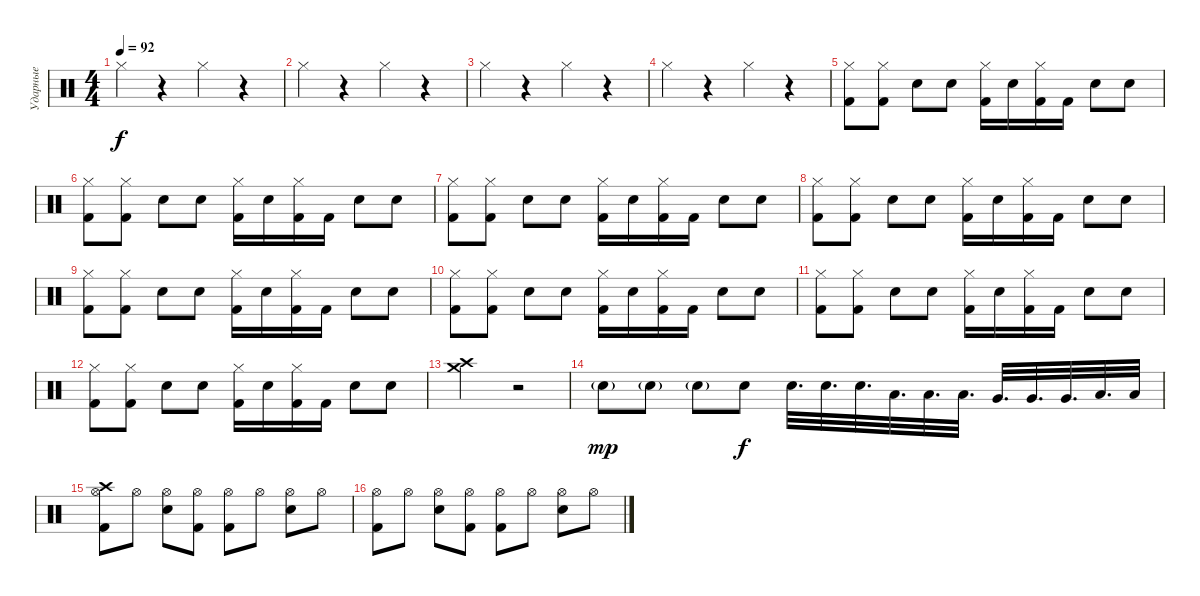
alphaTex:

\track ("Ударные" "Ударные") {instrument percussion}
\staff {score}
\articulation defaults
\ts (4 4)
\tempo 92
\clef neutral
\ks c "Hi-Hat (closed)".4{dy f}
r.4 "Hi-Hat (closed)".4 r.4 |
"Hi-Hat (closed)".4 r.4 "Hi-Hat (closed)".4 r.4 |
"Hi-Hat (closed)".4 r.4 "Hi-Hat (closed)".4 r.4 |
"Hi-Hat (closed)".4 r.4 "Hi-Hat (closed)".4 r.4 |
("Kick (hit) 2" "Hi-Hat (closed)").8 ("Kick (hit) 2" "Hi-Hat (closed)").8 "Electric Snare (hit)".8 "Electric Snare (hit)".8 ("Kick (hit) 2" "Hi-Hat (closed)").16 "Electric Snare (hit)".16 ("Kick (hit) 2" "Hi-Hat (closed)").16 "Kick (hit) 2".16 "Electric Snare (hit)".8 "Electric Snare (hit)".8 |
("Kick (hit) 2" "Hi-Hat (closed)").8 ("Kick (hit) 2" "Hi-Hat (closed)").8 "Electric Snare (hit)".8 "Electric Snare (hit)".8 ("Kick (hit) 2" "Hi-Hat (closed)").16 "Electric Snare (hit)".16 ("Kick (hit) 2" "Hi-Hat (closed)").16 "Kick (hit) 2".16 "Electric Snare (hit)".8 "Electric Snare (hit)".8 |
("Kick (hit) 2" "Hi-Hat (closed)").8 ("Kick (hit) 2" "Hi-Hat (closed)").8 "Electric Snare (hit)".8 "Electric Snare (hit)".8 ("Kick (hit) 2" "Hi-Hat (closed)").16 "Electric Snare (hit)".16 ("Kick (hit) 2" "Hi-Hat (closed)").16 "Kick (hit) 2".16 "Electric Snare (hit)".8 "Electric Snare (hit)".8 |
("Kick (hit) 2" "Hi-Hat (closed)").8 ("Kick (hit) 2" "Hi-Hat (closed)").8 "Electric Snare (hit)".8 "Electric Snare (hit)".8 ("Kick (hit) 2" "Hi-Hat (closed)").16 "Electric Snare (hit)".16 ("Kick (hit) 2" "Hi-Hat (closed)").16 "Kick (hit) 2".16 "Electric Snare (hit)".8 "Electric Snare (hit)".8 |
("Kick (hit) 2" "Hi-Hat (closed)").8 ("Kick (hit) 2" "Hi-Hat (closed)").8 "Electric Snare (hit)".8 "Electric Snare (hit)".8 ("Kick (hit) 2" "Hi-Hat (closed)").16 "Electric Snare (hit)".16 ("Kick (hit) 2" "Hi-Hat (closed)").16 "Kick (hit) 2".16 "Electric Snare (hit)".8 "Electric Snare (hit)".8 |
("Kick (hit) 2" "Hi-Hat (closed)").8 ("Kick (hit) 2" "Hi-Hat (closed)").8 "Electric Snare (hit)".8 "Electric Snare (hit)".8 ("Kick (hit) 2" "Hi-Hat (closed)").16 "Electric Snare (hit)".16 ("Kick (hit) 2" "Hi-Hat (closed)").16 "Kick (hit) 2".16 "Electric Snare (hit)".8 "Electric Snare (hit)".8 |
("Kick (hit) 2" "Hi-Hat (closed)").8 ("Kick (hit) 2" "Hi-Hat (closed)").8 "Electric Snare (hit)".8 "Electric Snare (hit)".8 ("Kick (hit) 2" "Hi-Hat (closed)").16 "Electric Snare (hit)".16 ("Kick (hit) 2" "Hi-Hat (closed)").16 "Kick (hit) 2".16 "Electric Snare (hit)".8 "Electric Snare (hit)".8 |
("Kick (hit) 2" "Hi-Hat (closed)").8 ("Kick (hit) 2" "Hi-Hat (closed)").8 "Electric Snare (hit)".8 "Electric Snare (hit)".8 ("Kick (hit) 2" "Hi-Hat (closed)").16 "Electric Snare (hit)".16 ("Kick (hit) 2" "Hi-Hat (closed)").16 "Kick (hit) 2".16 "Electric Snare (hit)".8 "Electric Snare (hit)".8 |
("Crash medium (hit)" "Crash high (hit)").2 r.2 |
"Electric Snare (hit)"{g}.8{dy mp} "Electric Snare (hit)"{g}.8 "Electric Snare (hit)"{g}.8 "Electric Snare (hit)".8{dy f} "Electric Snare (hit)".32{d} "Electric Snare (hit)".32{d} "Electric Snare (hit)".32{d} "Low Tom (hit)".32{d} "Low Tom (hit)".32{d} "Low Tom (hit)".32{d} "Very Low Tom (hit)".32{d} "Very Low Tom (hit)".32{d} "Very Low Tom (hit)".32{d} "Low Floor Tom (hit)".32{d} "Low Floor Tom (hit)".32 |
("Kick (hit) 2" "Hi-Hat (open)" "Crash high (hit)").8 "Hi-Hat (open)".8 ("Electric Snare (hit)" "Hi-Hat (open)").8 ("Kick (hit) 2" "Hi-Hat (open)").8 ("Kick (hit) 2" "Hi-Hat (open)").8 "Hi-Hat (open)".8 ("Electric Snare (hit)" "Hi-Hat (open)").8 "Hi-Hat (open)".8 |
("Kick (hit) 2" "Hi-Hat (open)").8 "Hi-Hat (open)".8 ("Electric Snare (hit)" "Hi-Hat (open)").8 ("Kick (hit) 2" "Hi-Hat (open)").8 ("Kick (hit) 2" "Hi-Hat (open)").8 "Hi-Hat (open)".8 ("Electric Snare (hit)" "Hi-Hat (open)").8 "Hi-Hat (open)".8
